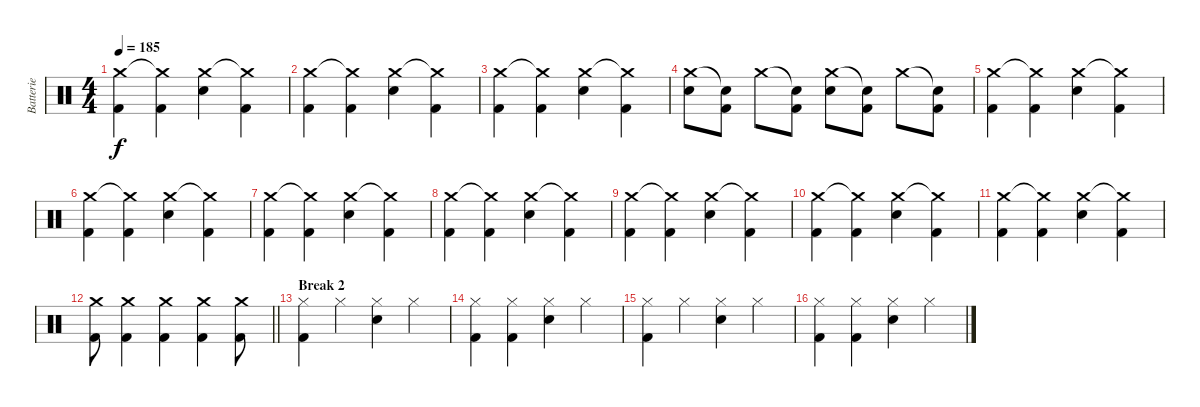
\track ("Batterie" "Batterie") {instrument percussion}
\staff {score}
\articulation defaults
\ts (4 4)
\tempo 185
\clef neutral
\ks c
("Crash medium (hit)" "Kick (hit) 2").4{dy f} ("Crash medium (hit)"{t} "Kick (hit) 2").4 ("Crash medium (hit)" "Electric Snare (hit)").4 ("Crash medium (hit)"{t} "Kick (hit) 2").4 |
("Crash medium (hit)" "Kick (hit) 2").4 ("Crash medium (hit)"{t} "Kick (hit) 2").4 ("Crash medium (hit)" "Electric Snare (hit)").4 ("Crash medium (hit)"{t} "Kick (hit) 2").4 |
("Crash medium (hit)" "Kick (hit) 2").4 ("Crash medium (hit)"{t} "Kick (hit) 2").4 ("Crash medium (hit)" "Electric Snare (hit)").4 ("Crash medium (hit)"{t} "Kick (hit) 2").4 |
("Crash medium (hit)" "Electric Snare (hit)").8 ("Snare (hit)"{t} "Kick (hit) 2").8 "Crash medium (hit)".8 ("Snare (hit)"{t} "Kick (hit) 2").8 ("Crash medium (hit)" "Electric Snare (hit)").8 ("Snare (hit)"{t} "Kick (hit) 2").8 "Crash medium (hit)".8 ("Snare (hit)"{t} "Kick (hit) 2").8 |
("Crash medium (hit)" "Kick (hit) 2").4 ("Crash medium (hit)"{t} "Kick (hit) 2").4 ("Crash medium (hit)" "Electric Snare (hit)").4 ("Crash medium (hit)"{t} "Kick (hit) 2").4 |
("Crash medium (hit)" "Kick (hit) 2").4 ("Crash medium (hit)"{t} "Kick (hit) 2").4 ("Crash medium (hit)" "Electric Snare (hit)").4 ("Crash medium (hit)"{t} "Kick (hit) 2").4 |
("Crash medium (hit)" "Kick (hit) 2").4 ("Crash medium (hit)"{t} "Kick (hit) 2").4 ("Crash medium (hit)" "Electric Snare (hit)").4 ("Crash medium (hit)"{t} "Kick (hit) 2").4 |
("Crash medium (hit)" "Kick (hit) 2").4 ("Crash medium (hit)"{t} "Kick (hit) 2").4 ("Crash medium (hit)" "Electric Snare (hit)").4 ("Crash medium (hit)"{t} "Kick (hit) 2").4 |
("Crash medium (hit)" "Kick (hit) 2").4 ("Crash medium (hit)"{t} "Kick (hit) 2").4 ("Crash medium (hit)" "Electric Snare (hit)").4 ("Crash medium (hit)"{t} "Kick (hit) 2").4 |
("Crash medium (hit)" "Kick (hit) 2").4 ("Crash medium (hit)"{t} "Kick (hit) 2").4 ("Crash medium (hit)" "Electric Snare (hit)").4 ("Crash medium (hit)"{t} "Kick (hit) 2").4 |
("Crash medium (hit)" "Kick (hit) 2").4 ("Crash medium (hit)"{t} "Kick (hit) 2").4 ("Crash medium (hit)" "Electric Snare (hit)").4 ("Crash medium (hit)"{t} "Kick (hit) 2").4 |
\barLineRight lightlight
("Crash medium (hit)" "Kick (hit) 2").8 ("Crash medium (hit)" "Kick (hit) 2").4 ("Crash medium (hit)" "Kick (hit) 2").4 ("Crash medium (hit)" "Kick (hit) 2").4 ("Crash medium (hit)" "Kick (hit) 2").8 |
\section ("" "Break 2")
("Hi-Hat (closed)" "Kick (hit) 2").4 "Hi-Hat (closed)".4 ("Hi-Hat (closed)" "Electric Snare (hit)").4 "Hi-Hat (closed)".4 |
("Hi-Hat (closed)" "Kick (hit) 2").4 ("Hi-Hat (closed)" "Kick (hit) 2").4 ("Hi-Hat (closed)" "Electric Snare (hit)").4 "Hi-Hat (closed)".4 |
("Hi-Hat (closed)" "Kick (hit) 2").4 "Hi-Hat (closed)".4 ("Hi-Hat (closed)" "Electric Snare (hit)").4 "Hi-Hat (closed)".4 |
("Hi-Hat (closed)" "Kick (hit) 2").4 ("Hi-Hat (closed)" "Kick (hit) 2").4 ("Hi-Hat (closed)" "Electric Snare (hit)").4 "Hi-Hat (closed)".4
